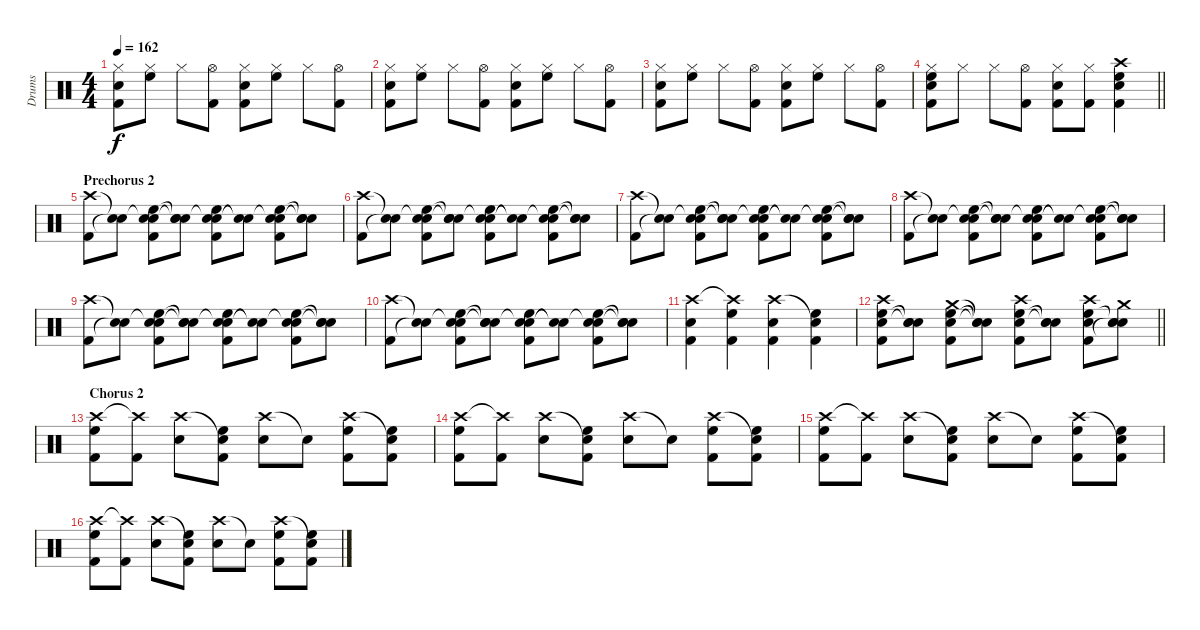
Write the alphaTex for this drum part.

\track ("Drums" "Drums") {instrument percussion}
\staff {score}
\articulation defaults
\ts (4 4)
\tempo 162
\clef neutral
\ks c
("Hi-Hat (closed)" "Snare (hit) 2" "Kick (hit) 2").8{dy f} ("Hi-Hat (closed)" "High Floor Tom (hit)").8 "Hi-Hat (closed)".8 ("Hi-Hat (open)" "Kick (hit) 2").8 ("Hi-Hat (closed)" "Snare (hit) 2" "Kick (hit) 2").8 ("Hi-Hat (closed)" "High Floor Tom (hit)").8 "Hi-Hat (closed)".8 ("Hi-Hat (open)" "Kick (hit) 2").8 |
("Hi-Hat (closed)" "Snare (hit) 2" "Kick (hit) 2").8 ("Hi-Hat (closed)" "High Floor Tom (hit)").8 "Hi-Hat (closed)".8 ("Hi-Hat (open)" "Kick (hit) 2").8 ("Hi-Hat (closed)" "Snare (hit) 2" "Kick (hit) 2").8 ("Hi-Hat (closed)" "High Floor Tom (hit)").8 "Hi-Hat (closed)".8 ("Hi-Hat (open)" "Kick (hit) 2").8 |
("Hi-Hat (closed)" "Snare (hit) 2" "Kick (hit) 2").8 ("Hi-Hat (closed)" "High Floor Tom (hit)").8 "Hi-Hat (closed)".8 ("Hi-Hat (open)" "Kick (hit) 2").8 ("Hi-Hat (closed)" "Snare (hit) 2" "Kick (hit) 2").8 ("Hi-Hat (closed)" "High Floor Tom (hit)").8 "Hi-Hat (closed)".8 ("Hi-Hat (open)" "Kick (hit) 2").8 |
\barLineRight lightlight
("Hi-Hat (closed)" "Snare (hit) 2" "High Floor Tom (hit)" "Kick (hit) 2").8 "Hi-Hat (closed)".8 "Hi-Hat (closed)".8 ("Hi-Hat (open)" "Kick (hit) 2").8 ("Hi-Hat (closed)" "Snare (hit) 2" "Kick (hit) 2").8 ("Hi-Hat (closed)" "Kick (hit) 2").8 ("Crash high (hit)" "Snare (hit) 2" "High Floor Tom (hit)" "Kick (hit) 2").4 |
\section ("" "Prechorus 2")
("Crash high (hit)" "Kick (hit) 2").8 ("Snare (hit)"{t} "Snare (hit)"{t}).8 ("Snare (hit)"{t} "Snare (hit) 2" "High Floor Tom (hit)" "Kick (hit) 2").8 ("Snare (hit)"{t} "Snare (hit) 2" "Snare (hit)"{t}).8 ("Snare (hit)"{t} "Snare (hit) 2" "High Floor Tom (hit)" "Kick (hit) 2").8 ("Snare (hit)"{t} "Snare (hit)"{t}).8 ("Snare (hit)"{t} "Snare (hit) 2" "High Floor Tom (hit)" "Kick (hit) 2").8 ("Snare (hit)"{t} "Snare (hit) 2" "Snare (hit)"{t}).8 |
("Crash high (hit)" "Kick (hit) 2").8 ("Snare (hit)"{t} "Snare (hit)"{t}).8 ("Snare (hit)"{t} "Snare (hit) 2" "High Floor Tom (hit)" "Kick (hit) 2").8 ("Snare (hit)"{t} "Snare (hit) 2" "Snare (hit)"{t}).8 ("Snare (hit)"{t} "Snare (hit) 2" "High Floor Tom (hit)" "Kick (hit) 2").8 ("Snare (hit)"{t} "Snare (hit)"{t}).8 ("Snare (hit)"{t} "Snare (hit) 2" "High Floor Tom (hit)" "Kick (hit) 2").8 ("Snare (hit)"{t} "Snare (hit) 2" "Snare (hit)"{t}).8 |
("Crash high (hit)" "Kick (hit) 2").8 ("Snare (hit)"{t} "Snare (hit)"{t}).8 ("Snare (hit)"{t} "Snare (hit) 2" "High Floor Tom (hit)" "Kick (hit) 2").8 ("Snare (hit)"{t} "Snare (hit) 2" "Snare (hit)"{t}).8 ("Snare (hit)"{t} "Snare (hit) 2" "High Floor Tom (hit)" "Kick (hit) 2").8 ("Snare (hit)"{t} "Snare (hit)"{t}).8 ("Snare (hit)"{t} "Snare (hit) 2" "High Floor Tom (hit)" "Kick (hit) 2").8 ("Snare (hit)"{t} "Snare (hit) 2" "Snare (hit)"{t}).8 |
("Crash high (hit)" "Kick (hit) 2").8 ("Snare (hit)"{t} "Snare (hit)"{t}).8 ("Snare (hit)"{t} "Snare (hit) 2" "High Floor Tom (hit)" "Kick (hit) 2").8 ("Snare (hit)"{t} "Snare (hit) 2" "Snare (hit)"{t}).8 ("Snare (hit)"{t} "Snare (hit) 2" "High Floor Tom (hit)" "Kick (hit) 2").8 ("Snare (hit)"{t} "Snare (hit)"{t}).8 ("Snare (hit)"{t} "Snare (hit) 2" "High Floor Tom (hit)" "Kick (hit) 2").8 ("Snare (hit)"{t} "Snare (hit) 2" "Snare (hit)"{t}).8 |
("Crash high (hit)" "Kick (hit) 2").8 ("Snare (hit)"{t} "Snare (hit)"{t}).8 ("Snare (hit)"{t} "Snare (hit) 2" "High Floor Tom (hit)" "Kick (hit) 2").8 ("Snare (hit)"{t} "Snare (hit) 2" "Snare (hit)"{t}).8 ("Snare (hit)"{t} "Snare (hit) 2" "High Floor Tom (hit)" "Kick (hit) 2").8 ("Snare (hit)"{t} "Snare (hit)"{t}).8 ("Snare (hit)"{t} "Snare (hit) 2" "High Floor Tom (hit)" "Kick (hit) 2").8 ("Snare (hit)"{t} "Snare (hit) 2" "Snare (hit)"{t}).8 |
("Crash high (hit)" "Kick (hit) 2").8 ("Snare (hit)"{t} "Snare (hit)"{t}).8 ("Snare (hit)"{t} "Snare (hit) 2" "High Floor Tom (hit)" "Kick (hit) 2").8 ("Snare (hit)"{t} "Snare (hit) 2" "Snare (hit)"{t}).8 ("Snare (hit)"{t} "Snare (hit) 2" "High Floor Tom (hit)" "Kick (hit) 2").8 ("Snare (hit)"{t} "Snare (hit)"{t}).8 ("Snare (hit)"{t} "Snare (hit) 2" "High Floor Tom (hit)" "Kick (hit) 2").8 ("Snare (hit)"{t} "Snare (hit) 2" "Snare (hit)"{t}).8 |
("Crash high (hit)" "Snare (hit) 2" "Kick (hit) 2").4 ("Crash high (hit)"{t} "High Floor Tom (hit)" "Kick (hit) 2").4 ("Crash high (hit)" "Snare (hit) 2" "Kick (hit) 2").4 ("Snare (hit)"{t} "High Floor Tom (hit)" "Kick (hit) 2").4 |
\barLineRight lightlight
("Crash high (hit)" "Snare (hit) 2" "High Floor Tom (hit)" "Kick (hit) 2").8 ("Snare (hit) 2" "Snare (hit)"{t} "Snare (hit)"{t}).8 ("Crash medium (hit)" "Snare (hit) 2" "High Floor Tom (hit)" "Kick (hit) 2").8 ("Snare (hit)"{t} "Snare (hit)"{t} "Snare (hit)"{t}).8 ("Crash high (hit)" "Snare (hit) 2" "High Floor Tom (hit)" "Kick (hit) 2").8 ("Snare (hit) 2" "Snare (hit)"{t} "Snare (hit)"{t}).8 ("Crash high (hit)" "Snare (hit) 2" "High Floor Tom (hit)" "Kick (hit) 2").8 ("Crash medium (hit)" "Snare (hit) 2" "Snare (hit)"{t} "Snare (hit)"{t}).8 |
\section ("" "Chorus 2")
("Crash high (hit)" "High Floor Tom (hit)" "Kick (hit) 2").8 ("Crash high (hit)"{t} "Kick (hit) 2").8 ("Crash high (hit)" "Snare (hit) 2").8 ("Snare (hit)"{t} "High Floor Tom (hit)" "Kick (hit) 2").8 ("Crash high (hit)" "Snare (hit) 2").8 "Snare (hit)"{t}.8 ("Crash high (hit)" "High Floor Tom (hit)" "Kick (hit) 2").8 ("Snare (hit)"{t} "High Floor Tom (hit)" "Kick (hit) 2").8 |
("Crash high (hit)" "High Floor Tom (hit)" "Kick (hit) 2").8 ("Crash high (hit)"{t} "Kick (hit) 2").8 ("Crash high (hit)" "Snare (hit) 2").8 ("Snare (hit)"{t} "High Floor Tom (hit)" "Kick (hit) 2").8 ("Crash high (hit)" "Snare (hit) 2").8 "Snare (hit)"{t}.8 ("Crash high (hit)" "High Floor Tom (hit)" "Kick (hit) 2").8 ("Snare (hit)"{t} "High Floor Tom (hit)" "Kick (hit) 2").8 |
("Crash high (hit)" "High Floor Tom (hit)" "Kick (hit) 2").8 ("Crash high (hit)"{t} "Kick (hit) 2").8 ("Crash high (hit)" "Snare (hit) 2").8 ("Snare (hit)"{t} "High Floor Tom (hit)" "Kick (hit) 2").8 ("Crash high (hit)" "Snare (hit) 2").8 "Snare (hit)"{t}.8 ("Crash high (hit)" "High Floor Tom (hit)" "Kick (hit) 2").8 ("Snare (hit)"{t} "High Floor Tom (hit)" "Kick (hit) 2").8 |
("Crash high (hit)" "High Floor Tom (hit)" "Kick (hit) 2").8 ("Crash high (hit)"{t} "Kick (hit) 2").8 ("Crash high (hit)" "Snare (hit) 2").8 ("Snare (hit)"{t} "High Floor Tom (hit)" "Kick (hit) 2").8 ("Crash high (hit)" "Snare (hit) 2").8 "Snare (hit)"{t}.8 ("Crash high (hit)" "High Floor Tom (hit)" "Kick (hit) 2").8 ("Snare (hit)"{t} "High Floor Tom (hit)" "Kick (hit) 2").8
